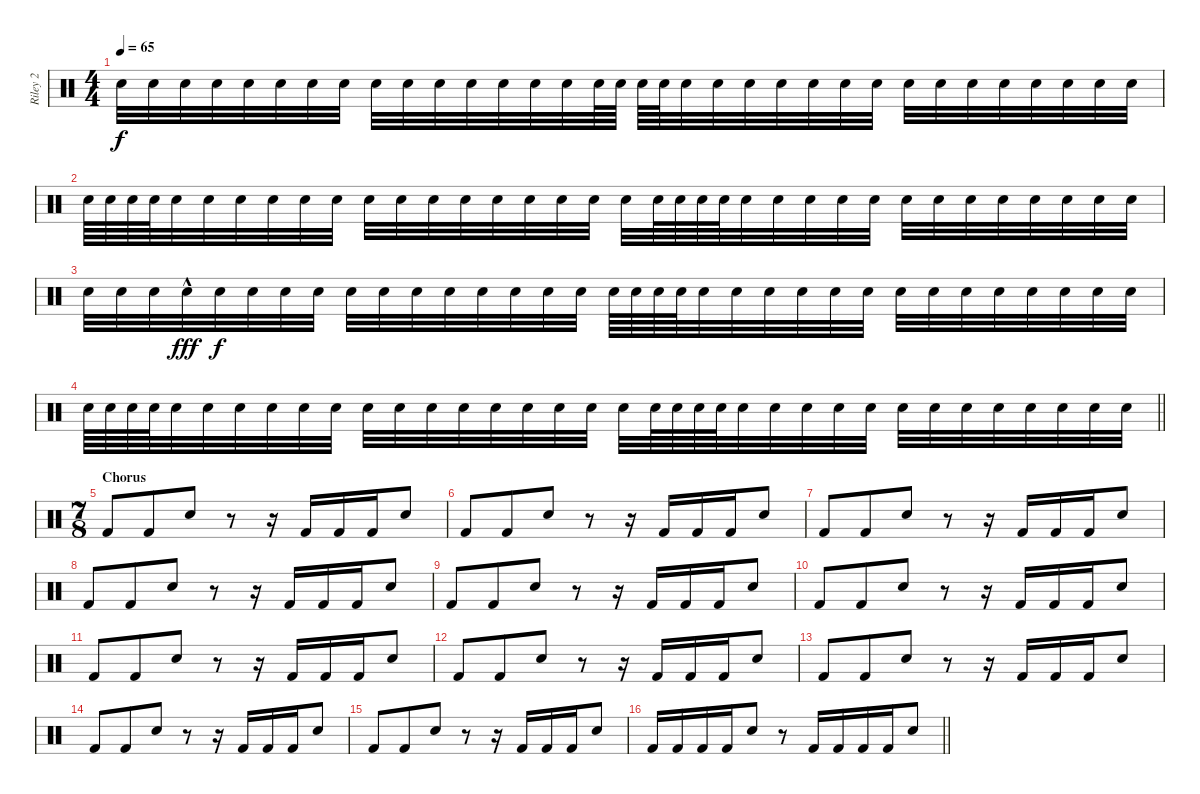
\track ("Riley 2" "Riley 2") {instrument percussion}
\staff {score}
\articulation defaults
\ts (4 4)
\tempo 65
\clef neutral
\ks c "Electric Snare (hit)".32{dy f} "Electric Snare (hit)".32 "Electric Snare (hit)".32 "Electric Snare (hit)".32 "Electric Snare (hit)".32 "Electric Snare (hit)".32 "Electric Snare (hit)".32 "Electric Snare (hit)".32 "Electric Snare (hit)".32 "Electric Snare (hit)".32 "Electric Snare (hit)".32 "Electric Snare (hit)".32 "Electric Snare (hit)".32 "Electric Snare (hit)".32 "Electric Snare (hit)".32 "Electric Snare (hit)".64 "Electric Snare (hit)".64 "Electric Snare (hit)".64 "Electric Snare (hit)".64 "Electric Snare (hit)".32 "Electric Snare (hit)".32 "Electric Snare (hit)".32 "Electric Snare (hit)".32 "Electric Snare (hit)".32 "Electric Snare (hit)".32 "Electric Snare (hit)".32 "Electric Snare (hit)".32 "Electric Snare (hit)".32 "Electric Snare (hit)".32 "Electric Snare (hit)".32 "Electric Snare (hit)".32 "Electric Snare (hit)".32 "Electric Snare (hit)".32 "Electric Snare (hit)".32
|
"Electric Snare (hit)".64 "Electric Snare (hit)".64 "Electric Snare (hit)".64 "Electric Snare (hit)".64 "Electric Snare (hit)".32 "Electric Snare (hit)".32 "Electric Snare (hit)".32 "Electric Snare (hit)".32 "Electric Snare (hit)".32 "Electric Snare (hit)".32 "Electric Snare (hit)".32 "Electric Snare (hit)".32 "Electric Snare (hit)".32 "Electric Snare (hit)".32 "Electric Snare (hit)".32 "Electric Snare (hit)".32 "Electric Snare (hit)".32 "Electric Snare (hit)".32 "Electric Snare (hit)".32 "Electric Snare (hit)".64 "Electric Snare (hit)".64 "Electric Snare (hit)".64 "Electric Snare (hit)".64 "Electric Snare (hit)".32 "Electric Snare (hit)".32 "Electric Snare (hit)".32 "Electric Snare (hit)".32 "Electric Snare (hit)".32 "Electric Snare (hit)".32 "Electric Snare (hit)".32 "Electric Snare (hit)".32 "Electric Snare (hit)".32 "Electric Snare (hit)".32 "Electric Snare (hit)".32 "Electric Snare (hit)".32 "Electric Snare (hit)".32 |
"Electric Snare (hit)".32 "Electric Snare (hit)".32 "Electric Snare (hit)".32 "Electric Snare (hit)"{hac}.32{dy fff} "Electric Snare (hit)".32{dy f} "Electric Snare (hit)".32 "Electric Snare (hit)".32 "Electric Snare (hit)".32 "Electric Snare (hit)".32 "Electric Snare (hit)".32 "Electric Snare (hit)".32 "Electric Snare (hit)".32 "Electric Snare (hit)".32 "Electric Snare (hit)".32 "Electric Snare (hit)".32 "Electric Snare (hit)".32 "Electric Snare (hit)".64 "Electric Snare (hit)".64 "Electric Snare (hit)".64 "Electric Snare (hit)".64 "Electric Snare (hit)".32 "Electric Snare (hit)".32 "Electric Snare (hit)".32 "Electric Snare (hit)".32 "Electric Snare (hit)".32 "Electric Snare (hit)".32 "Electric Snare (hit)".32 "Electric Snare (hit)".32 "Electric Snare (hit)".32 "Electric Snare (hit)".32 "Electric Snare (hit)".32 "Electric Snare (hit)".32 "Electric Snare (hit)".32 "Electric Snare (hit)".32 |
\barLineRight lightlight "Electric Snare (hit)".64 "Electric Snare (hit)".64 "Electric Snare (hit)".64 "Electric Snare (hit)".64 "Electric Snare (hit)".32 "Electric Snare (hit)".32 "Electric Snare (hit)".32 "Electric Snare (hit)".32 "Electric Snare (hit)".32 "Electric Snare (hit)".32 "Electric Snare (hit)".32 "Electric Snare (hit)".32 "Electric Snare (hit)".32 "Electric Snare (hit)".32 "Electric Snare (hit)".32 "Electric Snare (hit)".32 "Electric Snare (hit)".32 "Electric Snare (hit)".32 "Electric Snare (hit)".32 "Electric Snare (hit)".64 "Electric Snare (hit)".64 "Electric Snare (hit)".64 "Electric Snare (hit)".64 "Electric Snare (hit)".32 "Electric Snare (hit)".32 "Electric Snare (hit)".32 "Electric Snare (hit)".32 "Electric Snare (hit)".32 "Electric Snare (hit)".32 "Electric Snare (hit)".32 "Electric Snare (hit)".32 "Electric Snare (hit)".32 "Electric Snare (hit)".32 "Electric Snare (hit)".32 "Electric Snare (hit)".32 "Electric Snare (hit)".32
|
\ts (7 8)
\section ("" "Chorus")
"Kick (hit) 2".8 "Kick (hit) 2".8 "Electric Snare (hit)".8 r.8 r.16 "Kick (hit) 2".16 "Kick (hit) 2".16 "Kick (hit) 2".16 "Electric Snare (hit)".8 |
"Kick (hit) 2".8 "Kick (hit) 2".8 "Electric Snare (hit)".8 r.8 r.16 "Kick (hit) 2".16 "Kick (hit) 2".16 "Kick (hit) 2".16 "Electric Snare (hit)".8 |
"Kick (hit) 2".8 "Kick (hit) 2".8 "Electric Snare (hit)".8 r.8 r.16 "Kick (hit) 2".16 "Kick (hit) 2".16 "Kick (hit) 2".16 "Electric Snare (hit)".8 |
"Kick (hit) 2".8 "Kick (hit) 2".8 "Electric Snare (hit)".8 r.8 r.16 "Kick (hit) 2".16 "Kick (hit) 2".16 "Kick (hit) 2".16 "Electric Snare (hit)".8 |
"Kick (hit) 2".8 "Kick (hit) 2".8 "Electric Snare (hit)".8 r.8 r.16 "Kick (hit) 2".16 "Kick (hit) 2".16 "Kick (hit) 2".16 "Electric Snare (hit)".8 |
"Kick (hit) 2".8 "Kick (hit) 2".8 "Electric Snare (hit)".8 r.8 r.16 "Kick (hit) 2".16 "Kick (hit) 2".16 "Kick (hit) 2".16 "Electric Snare (hit)".8 |
"Kick (hit) 2".8 "Kick (hit) 2".8 "Electric Snare (hit)".8 r.8 r.16 "Kick (hit) 2".16 "Kick (hit) 2".16 "Kick (hit) 2".16 "Electric Snare (hit)".8 |
"Kick (hit) 2".8 "Kick (hit) 2".8 "Electric Snare (hit)".8 r.8 r.16 "Kick (hit) 2".16 "Kick (hit) 2".16 "Kick (hit) 2".16 "Electric Snare (hit)".8 |
"Kick (hit) 2".8 "Kick (hit) 2".8 "Electric Snare (hit)".8 r.8 r.16 "Kick (hit) 2".16 "Kick (hit) 2".16 "Kick (hit) 2".16 "Electric Snare (hit)".8 |
"Kick (hit) 2".8 "Kick (hit) 2".8 "Electric Snare (hit)".8 r.8 r.16 "Kick (hit) 2".16 "Kick (hit) 2".16 "Kick (hit) 2".16 "Electric Snare (hit)".8 |
"Kick (hit) 2".8 "Kick (hit) 2".8 "Electric Snare (hit)".8 r.8 r.16 "Kick (hit) 2".16 "Kick (hit) 2".16 "Kick (hit) 2".16 "Electric Snare (hit)".8 |
\barLineRight lightlight "Kick (hit) 2".16 "Kick (hit) 2".16 "Kick (hit) 2".16 "Kick (hit) 2".16 "Electric Snare (hit)".8
r.8 "Kick (hit) 2".16 "Kick (hit) 2".16 "Kick (hit) 2".16 "Kick (hit) 2".16 "Electric Snare (hit)".8
